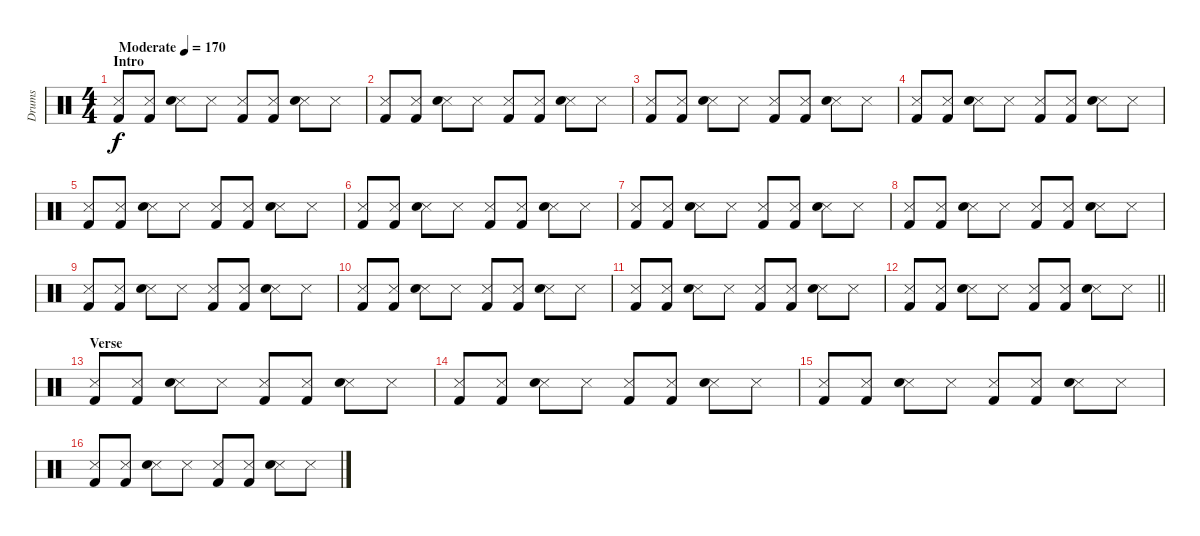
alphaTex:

\track ("Drums" "Drums") {instrument percussion}
\staff {score}
\articulation defaults
\ts (4 4)
\section ("" "Intro")
\tempo (170 "Moderate")
\clef neutral
\ks c
("Metronome (hit)" "Kick (hit) 2").8{dy f} ("Metronome (hit)" "Kick (hit) 2").8 ("Metronome (hit)" "Electric Snare (hit)").8 "Metronome (hit)".8 ("Metronome (hit)" "Kick (hit) 2").8 ("Metronome (hit)" "Kick (hit) 2").8 ("Metronome (hit)" "Electric Snare (hit)").8 "Metronome (hit)".8 |
("Metronome (hit)" "Kick (hit) 2").8 ("Metronome (hit)" "Kick (hit) 2").8 ("Metronome (hit)" "Electric Snare (hit)").8 "Metronome (hit)".8 ("Metronome (hit)" "Kick (hit) 2").8 ("Metronome (hit)" "Kick (hit) 2").8 ("Metronome (hit)" "Electric Snare (hit)").8 "Metronome (hit)".8 |
("Metronome (hit)" "Kick (hit) 2").8 ("Metronome (hit)" "Kick (hit) 2").8 ("Metronome (hit)" "Electric Snare (hit)").8 "Metronome (hit)".8 ("Metronome (hit)" "Kick (hit) 2").8 ("Metronome (hit)" "Kick (hit) 2").8 ("Metronome (hit)" "Electric Snare (hit)").8 "Metronome (hit)".8 |
("Metronome (hit)" "Kick (hit) 2").8 ("Metronome (hit)" "Kick (hit) 2").8 ("Metronome (hit)" "Electric Snare (hit)").8 "Metronome (hit)".8 ("Metronome (hit)" "Kick (hit) 2").8 ("Metronome (hit)" "Kick (hit) 2").8 ("Metronome (hit)" "Electric Snare (hit)").8 "Metronome (hit)".8 |
("Metronome (hit)" "Kick (hit) 2").8 ("Metronome (hit)" "Kick (hit) 2").8 ("Metronome (hit)" "Electric Snare (hit)").8 "Metronome (hit)".8 ("Metronome (hit)" "Kick (hit) 2").8 ("Metronome (hit)" "Kick (hit) 2").8 ("Metronome (hit)" "Electric Snare (hit)").8 "Metronome (hit)".8 |
("Metronome (hit)" "Kick (hit) 2").8 ("Metronome (hit)" "Kick (hit) 2").8 ("Metronome (hit)" "Electric Snare (hit)").8 "Metronome (hit)".8 ("Metronome (hit)" "Kick (hit) 2").8 ("Metronome (hit)" "Kick (hit) 2").8 ("Metronome (hit)" "Electric Snare (hit)").8 "Metronome (hit)".8 |
("Metronome (hit)" "Kick (hit) 2").8 ("Metronome (hit)" "Kick (hit) 2").8 ("Metronome (hit)" "Electric Snare (hit)").8 "Metronome (hit)".8 ("Metronome (hit)" "Kick (hit) 2").8 ("Metronome (hit)" "Kick (hit) 2").8 ("Metronome (hit)" "Electric Snare (hit)").8 "Metronome (hit)".8 |
("Metronome (hit)" "Kick (hit) 2").8 ("Metronome (hit)" "Kick (hit) 2").8 ("Metronome (hit)" "Electric Snare (hit)").8 "Metronome (hit)".8 ("Metronome (hit)" "Kick (hit) 2").8 ("Metronome (hit)" "Kick (hit) 2").8 ("Metronome (hit)" "Electric Snare (hit)").8 "Metronome (hit)".8 |
("Metronome (hit)" "Kick (hit) 2").8 ("Metronome (hit)" "Kick (hit) 2").8 ("Metronome (hit)" "Electric Snare (hit)").8 "Metronome (hit)".8 ("Metronome (hit)" "Kick (hit) 2").8 ("Metronome (hit)" "Kick (hit) 2").8 ("Metronome (hit)" "Electric Snare (hit)").8 "Metronome (hit)".8 |
("Metronome (hit)" "Kick (hit) 2").8 ("Metronome (hit)" "Kick (hit) 2").8 ("Metronome (hit)" "Electric Snare (hit)").8 "Metronome (hit)".8 ("Metronome (hit)" "Kick (hit) 2").8 ("Metronome (hit)" "Kick (hit) 2").8 ("Metronome (hit)" "Electric Snare (hit)").8 "Metronome (hit)".8 |
("Metronome (hit)" "Kick (hit) 2").8 ("Metronome (hit)" "Kick (hit) 2").8 ("Metronome (hit)" "Electric Snare (hit)").8 "Metronome (hit)".8 ("Metronome (hit)" "Kick (hit) 2").8 ("Metronome (hit)" "Kick (hit) 2").8 ("Metronome (hit)" "Electric Snare (hit)").8 "Metronome (hit)".8 |
\barLineRight lightlight
("Metronome (hit)" "Kick (hit) 2").8 ("Metronome (hit)" "Kick (hit) 2").8 ("Metronome (hit)" "Electric Snare (hit)").8 "Metronome (hit)".8 ("Metronome (hit)" "Kick (hit) 2").8 ("Metronome (hit)" "Kick (hit) 2").8 ("Metronome (hit)" "Electric Snare (hit)").8 "Metronome (hit)".8 |
\section ("" "Verse")
("Metronome (hit)" "Kick (hit) 2").8 ("Metronome (hit)" "Kick (hit) 2").8 ("Metronome (hit)" "Electric Snare (hit)").8 "Metronome (hit)".8 ("Metronome (hit)" "Kick (hit) 2").8 ("Metronome (hit)" "Kick (hit) 2").8 ("Metronome (hit)" "Electric Snare (hit)").8 "Metronome (hit)".8 |
("Metronome (hit)" "Kick (hit) 2").8 ("Metronome (hit)" "Kick (hit) 2").8 ("Metronome (hit)" "Electric Snare (hit)").8 "Metronome (hit)".8 ("Metronome (hit)" "Kick (hit) 2").8 ("Metronome (hit)" "Kick (hit) 2").8 ("Metronome (hit)" "Electric Snare (hit)").8 "Metronome (hit)".8 |
("Metronome (hit)" "Kick (hit) 2").8 ("Metronome (hit)" "Kick (hit) 2").8 ("Metronome (hit)" "Electric Snare (hit)").8 "Metronome (hit)".8 ("Metronome (hit)" "Kick (hit) 2").8 ("Metronome (hit)" "Kick (hit) 2").8 ("Metronome (hit)" "Electric Snare (hit)").8 "Metronome (hit)".8 |
("Metronome (hit)" "Kick (hit) 2").8 ("Metronome (hit)" "Kick (hit) 2").8 ("Metronome (hit)" "Electric Snare (hit)").8 "Metronome (hit)".8 ("Metronome (hit)" "Kick (hit) 2").8 ("Metronome (hit)" "Kick (hit) 2").8 ("Metronome (hit)" "Electric Snare (hit)").8 "Metronome (hit)".8
